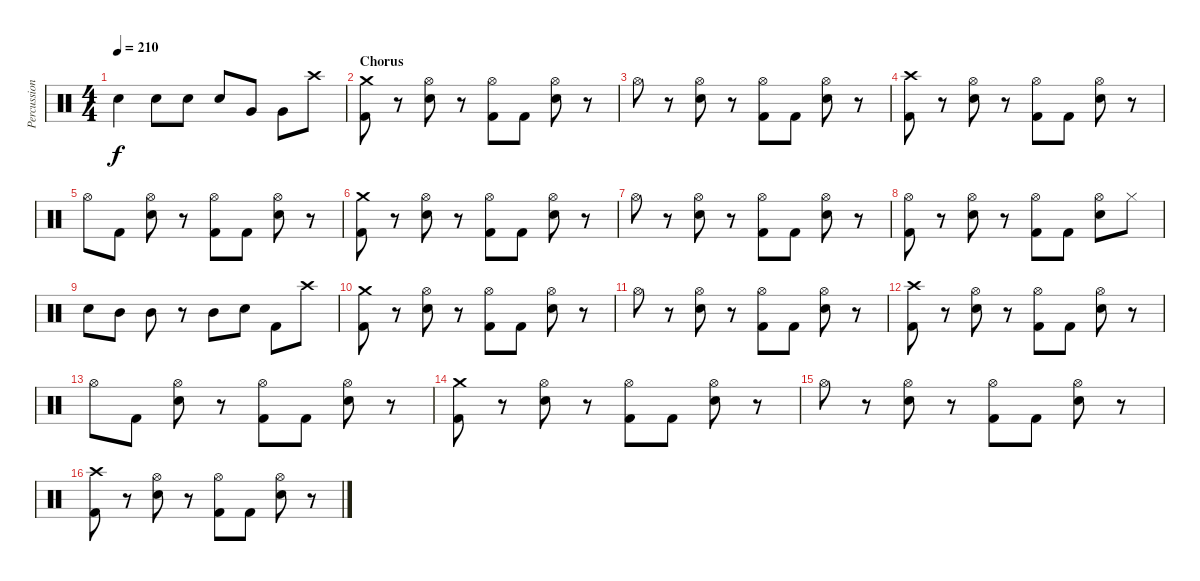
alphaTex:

\track ("Percussion" "Percussion") {instrument percussion}
\staff {score}
\articulation defaults
\ts (4 4)
\tempo 210
\clef neutral
\ks c "Electric Snare (hit)".4{dy f} "Electric Snare (hit)".8 "Electric Snare (hit)".8 "Electric Snare (hit)".8 "Very Low Tom (hit)".8 "Very Low Tom (hit)".8 "Crash high (hit)".8
|
\section ("" "Chorus")
("Crash medium (hit)" "Kick (hit) 2").8 r.8 ("Hi-Hat (open)" "Electric Snare (hit)").8 r.8 ("Hi-Hat (open)" "Kick (hit) 2").8 "Kick (hit) 2".8 ("Hi-Hat (open)" "Electric Snare (hit)").8 r.8 |
"Hi-Hat (open)".8 r.8 ("Hi-Hat (open)" "Electric Snare (hit)").8 r.8 ("Hi-Hat (open)" "Kick (hit) 2").8 "Kick (hit) 2".8 ("Hi-Hat (open)" "Electric Snare (hit)").8 r.8 |
("Crash high (hit)" "Kick (hit) 2").8 r.8 ("Hi-Hat (open)" "Electric Snare (hit)").8 r.8 ("Hi-Hat (open)" "Kick (hit) 2").8 "Kick (hit) 2".8 ("Hi-Hat (open)" "Electric Snare (hit)").8 r.8 |
"Hi-Hat (open)".8 "Kick (hit) 2".8 ("Hi-Hat (open)" "Electric Snare (hit)").8 r.8 ("Hi-Hat (open)" "Kick (hit) 2").8 "Kick (hit) 2".8 ("Hi-Hat (open)" "Electric Snare (hit)").8 r.8 |
("Crash medium (hit)" "Kick (hit) 2").8 r.8 ("Hi-Hat (open)" "Electric Snare (hit)").8 r.8 ("Hi-Hat (open)" "Kick (hit) 2").8 "Kick (hit) 2".8 ("Hi-Hat (open)" "Electric Snare (hit)").8 r.8 |
"Hi-Hat (open)".8 r.8 ("Hi-Hat (open)" "Electric Snare (hit)").8 r.8 ("Hi-Hat (open)" "Kick (hit) 2").8 "Kick (hit) 2".8 ("Hi-Hat (open)" "Electric Snare (hit)").8 r.8 |
("Hi-Hat (open)" "Kick (hit) 2").8 r.8 ("Hi-Hat (open)" "Electric Snare (hit)").8 r.8 ("Hi-Hat (open)" "Kick (hit) 2").8 "Kick (hit) 2".8 ("Hi-Hat (open)" "Electric Snare (hit)").8 "Hi-Hat (closed)".8 |
"Electric Snare (hit)".8 "Mid Tom (hit)".8 "Mid Tom (hit)".8 r.8 "Mid Tom (hit)".8 "Electric Snare (hit)".8 "Kick (hit) 2".8 "Crash high (hit)".8 |
("Crash medium (hit)" "Kick (hit) 2").8 r.8 ("Hi-Hat (open)" "Electric Snare (hit)").8 r.8 ("Hi-Hat (open)" "Kick (hit) 2").8 "Kick (hit) 2".8 ("Hi-Hat (open)" "Electric Snare (hit)").8 r.8 |
"Hi-Hat (open)".8 r.8 ("Hi-Hat (open)" "Electric Snare (hit)").8 r.8 ("Hi-Hat (open)" "Kick (hit) 2").8 "Kick (hit) 2".8 ("Hi-Hat (open)" "Electric Snare (hit)").8 r.8 |
("Crash high (hit)" "Kick (hit) 2").8 r.8 ("Hi-Hat (open)" "Electric Snare (hit)").8 r.8 ("Hi-Hat (open)" "Kick (hit) 2").8 "Kick (hit) 2".8 ("Hi-Hat (open)" "Electric Snare (hit)").8 r.8 |
"Hi-Hat (open)".8 "Kick (hit) 2".8 ("Hi-Hat (open)" "Electric Snare (hit)").8 r.8 ("Hi-Hat (open)" "Kick (hit) 2").8 "Kick (hit) 2".8 ("Hi-Hat (open)" "Electric Snare (hit)").8 r.8 |
("Crash medium (hit)" "Kick (hit) 2").8 r.8 ("Hi-Hat (open)" "Electric Snare (hit)").8 r.8 ("Hi-Hat (open)" "Kick (hit) 2").8 "Kick (hit) 2".8 ("Hi-Hat (open)" "Electric Snare (hit)").8 r.8 |
"Hi-Hat (open)".8 r.8 ("Hi-Hat (open)" "Electric Snare (hit)").8 r.8 ("Hi-Hat (open)" "Kick (hit) 2").8 "Kick (hit) 2".8 ("Hi-Hat (open)" "Electric Snare (hit)").8 r.8 |
("Crash high (hit)" "Kick (hit) 2").8 r.8 ("Hi-Hat (open)" "Electric Snare (hit)").8 r.8 ("Hi-Hat (open)" "Kick (hit) 2").8 "Kick (hit) 2".8 ("Hi-Hat (open)" "Electric Snare (hit)").8 r.8
